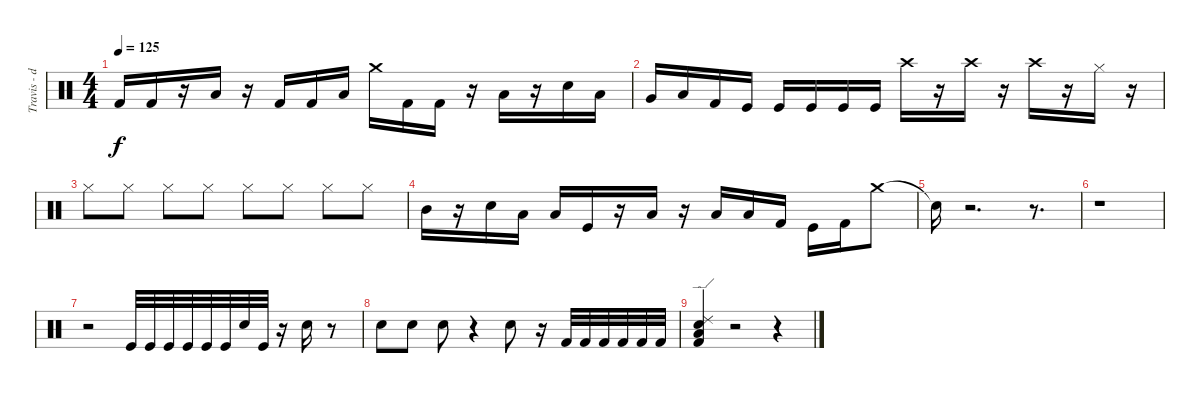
\track ("Travis - drums" "Travis - d") {instrument percussion}
\staff {score}
\articulation defaults
\ts (4 4)
\tempo 125
\clef neutral
\ks c "Kick (hit) 2".16{dy f} "Kick (hit) 2".16
r.16 "Low Tom (hit)".16 r.16 "Kick (hit) 2".16 "Kick (hit) 2".16 "Low Tom (hit)".16 "Crash medium (hit)".16 "Kick (hit) 2".16 "Kick (hit) 2".16 r.16 "Low Tom (hit)".16 r.16 "Electric Snare (hit)".16 "Low Tom (hit)".16 |
"Very Low Tom (hit)".16 "Low Floor Tom (hit)".16 "Kick (hit) 2".16 "Kick (hit)".16 "Kick (hit)".16 "Kick (hit)".16 "Kick (hit)".16 "Kick (hit)".16 "Crash high (hit)".16 r.16 "Crash high (hit)".16 r.16 "Crash high (hit)".16 r.16 "Hi-Hat (closed)".16 r.16 |
"Hi-Hat (closed)".8 "Hi-Hat (closed)".8 "Hi-Hat (closed)".8 "Hi-Hat (closed)".8 "Hi-Hat (closed)".8 "Hi-Hat (closed)".8 "Hi-Hat (closed)".8 "Hi-Hat (closed)".8 |
"Mid Tom (hit)".16 r.16 "Snare (hit) 2".16 "Low Tom (hit)".16 "Low Floor Tom (hit)".16 "Kick (hit)".16 r.16 "Low Tom (hit)".16 r.16 "Low Tom (hit)".16 "Low Floor Tom (hit)".16 "Kick (hit) 2".16 "Kick (hit)".16 "Kick (hit) 2".16 "Crash medium (hit)".8 |
"Snare (hit)"{t}.16 r.2{d} r.8{d} |
r.1 |
r.2 "Kick (hit)".32 "Kick (hit)".32 "Kick (hit)".32 "Kick (hit)".32 "Kick (hit)".32 "Kick (hit)".32 "Snare (hit) 2".32 "Kick (hit)".32 r.16 "Snare (hit) 2".16 r.8 |
"Snare (hit) 2".8 "Snare (hit) 2".8 "Snare (hit) 2".8 r.4 "Snare (hit) 2".8 r.16 "Kick (hit) 2".32 "Kick (hit) 2".32 "Kick (hit) 2".32 "Kick (hit) 2".32 "Kick (hit) 2".32 "Kick (hit) 2".32 |
("Kick (hit) 2" "Low Tom (hit)" "Electric Snare (hit)" "Ride (edge) 2").4 r.2 r.4
